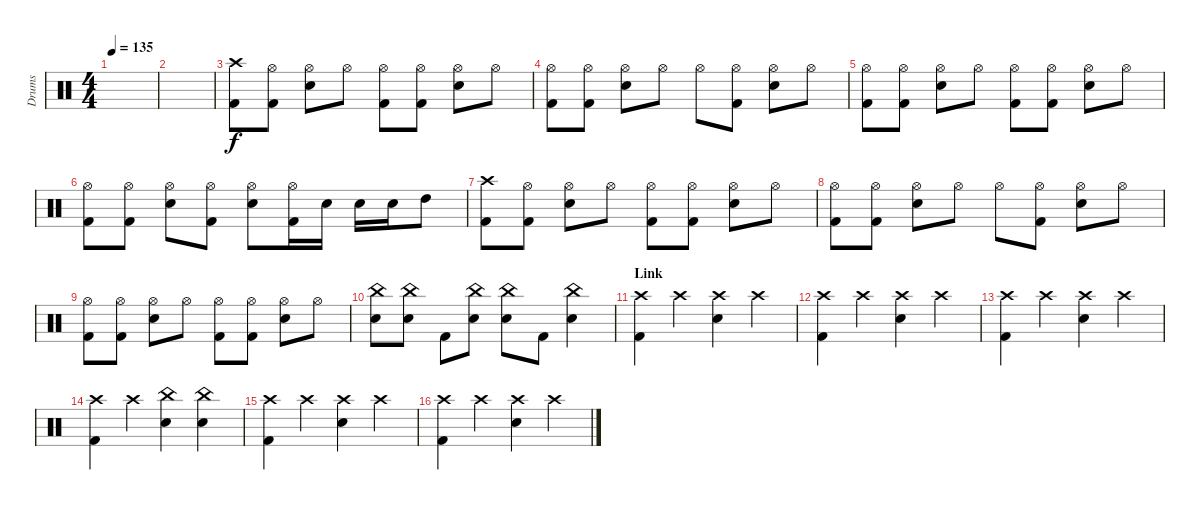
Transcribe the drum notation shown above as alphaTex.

\track ("Drums" "Drums") {instrument percussion}
\staff {score}
\articulation defaults
\ts (4 4)
\tempo 135
\clef neutral
\ks c
|
|
("Crash high (hit)" "Kick (hit) 2").8 ("Hi-Hat (open)" "Kick (hit) 2").8 ("Hi-Hat (open)" "Electric Snare (hit)").8 "Hi-Hat (open)".8 ("Hi-Hat (open)" "Kick (hit) 2").8 ("Hi-Hat (open)" "Kick (hit) 2").8 ("Hi-Hat (open)" "Electric Snare (hit)").8 "Hi-Hat (open)".8 |
("Hi-Hat (open)" "Kick (hit) 2").8 ("Hi-Hat (open)" "Kick (hit) 2").8 ("Hi-Hat (open)" "Electric Snare (hit)").8 "Hi-Hat (open)".8 "Hi-Hat (open)".8 ("Hi-Hat (open)" "Kick (hit) 2").8 ("Hi-Hat (open)" "Electric Snare (hit)").8 "Hi-Hat (open)".8 |
("Hi-Hat (open)" "Kick (hit) 2").8 ("Hi-Hat (open)" "Kick (hit) 2").8 ("Hi-Hat (open)" "Electric Snare (hit)").8 "Hi-Hat (open)".8 ("Hi-Hat (open)" "Kick (hit) 2").8 ("Hi-Hat (open)" "Kick (hit) 2").8 ("Hi-Hat (open)" "Electric Snare (hit)").8 "Hi-Hat (open)".8 |
("Hi-Hat (open)" "Kick (hit) 2").8 ("Hi-Hat (open)" "Kick (hit) 2").8 ("Hi-Hat (open)" "Electric Snare (hit)").8 ("Hi-Hat (open)" "Kick (hit) 2").8 ("Hi-Hat (open)" "Electric Snare (hit)").8 ("Hi-Hat (open)" "Kick (hit) 2").16 "Electric Snare (hit)".16 "Electric Snare (hit)".16 "Electric Snare (hit)".16 "High Tom (hit)".8 |
("Crash high (hit)" "Kick (hit) 2").8 ("Hi-Hat (open)" "Kick (hit) 2").8 ("Hi-Hat (open)" "Electric Snare (hit)").8 "Hi-Hat (open)".8 ("Hi-Hat (open)" "Kick (hit) 2").8 ("Hi-Hat (open)" "Kick (hit) 2").8 ("Hi-Hat (open)" "Electric Snare (hit)").8 "Hi-Hat (open)".8 |
("Hi-Hat (open)" "Kick (hit) 2").8 ("Hi-Hat (open)" "Kick (hit) 2").8 ("Hi-Hat (open)" "Electric Snare (hit)").8 "Hi-Hat (open)".8 "Hi-Hat (open)".8 ("Hi-Hat (open)" "Kick (hit) 2").8 ("Hi-Hat (open)" "Electric Snare (hit)").8 "Hi-Hat (open)".8 |
("Hi-Hat (open)" "Kick (hit) 2").8 ("Hi-Hat (open)" "Kick (hit) 2").8 ("Hi-Hat (open)" "Electric Snare (hit)").8 "Hi-Hat (open)".8 ("Hi-Hat (open)" "Kick (hit) 2").8 ("Hi-Hat (open)" "Kick (hit) 2").8 ("Hi-Hat (open)" "Electric Snare (hit)").8 "Hi-Hat (open)".8 |
("China (hit)" "Electric Snare (hit)").8 ("China (hit)" "Electric Snare (hit)").8 "Kick (hit) 2".8 ("China (hit)" "Electric Snare (hit)").8 ("China (hit)" "Electric Snare (hit)").8 "Kick (hit) 2".8 ("China (hit)" "Electric Snare (hit)").4 |
\section ("" "Link")
("Crash high (hit)" "Kick (hit) 2").4 "Crash high (hit)".4 ("Crash high (hit)" "Electric Snare (hit)").4 "Crash high (hit)".4 |
("Crash high (hit)" "Kick (hit) 2").4 "Crash high (hit)".4 ("Crash high (hit)" "Electric Snare (hit)").4 "Crash high (hit)".4 |
("Crash high (hit)" "Kick (hit) 2").4 "Crash high (hit)".4 ("Crash high (hit)" "Electric Snare (hit)").4 "Crash high (hit)".4 |
("Crash high (hit)" "Kick (hit) 2").4 "Crash high (hit)".4 ("China (hit)" "Electric Snare (hit)").4 ("China (hit)" "Electric Snare (hit)").4 |
("Crash high (hit)" "Kick (hit) 2").4 "Crash high (hit)".4 ("Crash high (hit)" "Electric Snare (hit)").4 "Crash high (hit)".4 |
("Crash high (hit)" "Kick (hit) 2").4 "Crash high (hit)".4 ("Crash high (hit)" "Electric Snare (hit)").4 "Crash high (hit)".4
